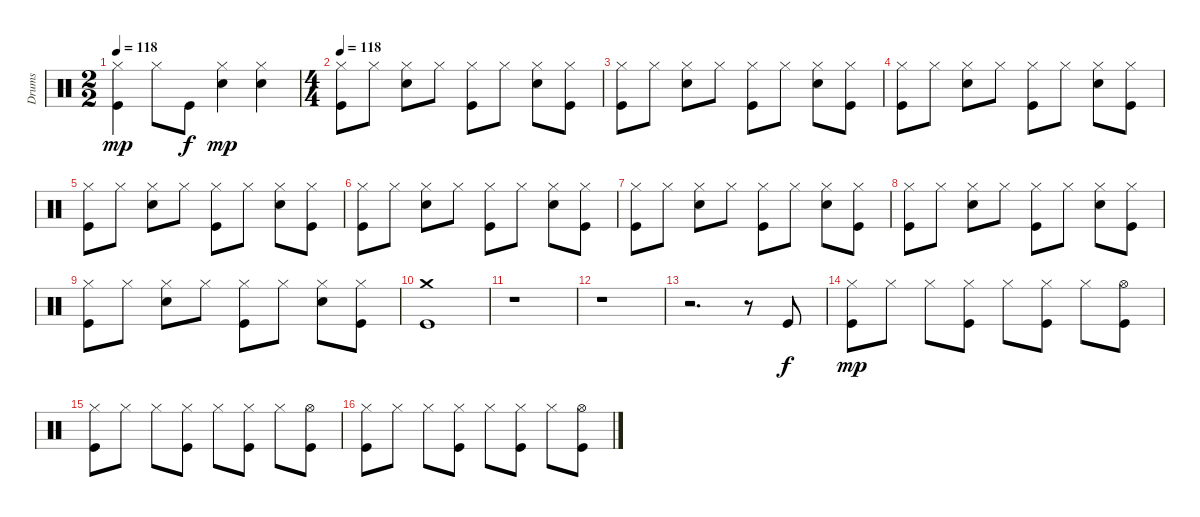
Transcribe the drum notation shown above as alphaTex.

\track ("Drums" "Drums") {instrument percussion}
\staff {score}
\articulation defaults
\ts (2 2)
\tempo 118
\clef neutral
\ks c
("Kick (hit)" "Hi-Hat (closed)").4{dy mp} "Hi-Hat (closed)".8 "Kick (hit)".8{dy f} ("Snare (hit) 2" "Hi-Hat (closed)").4{dy mp} ("Snare (hit) 2" "Hi-Hat (closed)").4 |
\ts (4 4)
\tempo 118
("Kick (hit)" "Hi-Hat (closed)").8 "Hi-Hat (closed)".8 ("Snare (hit) 2" "Hi-Hat (closed)").8 "Hi-Hat (closed)".8 ("Kick (hit)" "Hi-Hat (closed)").8 "Hi-Hat (closed)".8 ("Snare (hit) 2" "Hi-Hat (closed)").8 ("Kick (hit)" "Hi-Hat (closed)").8 |
("Kick (hit)" "Hi-Hat (closed)").8 "Hi-Hat (closed)".8 ("Snare (hit) 2" "Hi-Hat (closed)").8 "Hi-Hat (closed)".8 ("Kick (hit)" "Hi-Hat (closed)").8 "Hi-Hat (closed)".8 ("Snare (hit) 2" "Hi-Hat (closed)").8 ("Kick (hit)" "Hi-Hat (closed)").8 |
("Kick (hit)" "Hi-Hat (closed)").8 "Hi-Hat (closed)".8 ("Snare (hit) 2" "Hi-Hat (closed)").8 "Hi-Hat (closed)".8 ("Kick (hit)" "Hi-Hat (closed)").8 "Hi-Hat (closed)".8 ("Snare (hit) 2" "Hi-Hat (closed)").8 ("Kick (hit)" "Hi-Hat (closed)").8 |
("Kick (hit)" "Hi-Hat (closed)").8 "Hi-Hat (closed)".8 ("Snare (hit) 2" "Hi-Hat (closed)").8 "Hi-Hat (closed)".8 ("Kick (hit)" "Hi-Hat (closed)").8 "Hi-Hat (closed)".8 ("Snare (hit) 2" "Hi-Hat (closed)").8 ("Kick (hit)" "Hi-Hat (closed)").8 |
("Kick (hit)" "Hi-Hat (closed)").8 "Hi-Hat (closed)".8 ("Snare (hit) 2" "Hi-Hat (closed)").8 "Hi-Hat (closed)".8 ("Kick (hit)" "Hi-Hat (closed)").8 "Hi-Hat (closed)".8 ("Snare (hit) 2" "Hi-Hat (closed)").8 ("Kick (hit)" "Hi-Hat (closed)").8 |
("Kick (hit)" "Hi-Hat (closed)").8 "Hi-Hat (closed)".8 ("Snare (hit) 2" "Hi-Hat (closed)").8 "Hi-Hat (closed)".8 ("Kick (hit)" "Hi-Hat (closed)").8 "Hi-Hat (closed)".8 ("Snare (hit) 2" "Hi-Hat (closed)").8 ("Kick (hit)" "Hi-Hat (closed)").8 |
("Kick (hit)" "Hi-Hat (closed)").8 "Hi-Hat (closed)".8 ("Snare (hit) 2" "Hi-Hat (closed)").8 "Hi-Hat (closed)".8 ("Kick (hit)" "Hi-Hat (closed)").8 "Hi-Hat (closed)".8 ("Snare (hit) 2" "Hi-Hat (closed)").8 ("Kick (hit)" "Hi-Hat (closed)").8 |
("Kick (hit)" "Hi-Hat (closed)").8 "Hi-Hat (closed)".8 ("Snare (hit) 2" "Hi-Hat (closed)").8 "Hi-Hat (closed)".8 ("Kick (hit)" "Hi-Hat (closed)").8 "Hi-Hat (closed)".8 ("Snare (hit) 2" "Hi-Hat (closed)").8 ("Kick (hit)" "Hi-Hat (closed)").8 |
("Kick (hit)" "Crash medium (hit)").1 |
r.1 |
r.1 |
r.2{d} r.8 "Kick (hit)".8{dy f} |
("Kick (hit)" "Hi-Hat (closed)").8{dy mp} "Hi-Hat (closed)".8 "Hi-Hat (closed)".8 ("Kick (hit)" "Hi-Hat (closed)").8 "Hi-Hat (closed)".8 ("Kick (hit)" "Hi-Hat (closed)").8 "Hi-Hat (closed)".8 ("Kick (hit)" "Hi-Hat (open)").8 |
("Kick (hit)" "Hi-Hat (closed)").8 "Hi-Hat (closed)".8 "Hi-Hat (closed)".8 ("Kick (hit)" "Hi-Hat (closed)").8 "Hi-Hat (closed)".8 ("Kick (hit)" "Hi-Hat (closed)").8 "Hi-Hat (closed)".8 ("Kick (hit)" "Hi-Hat (open)").8 |
("Kick (hit)" "Hi-Hat (closed)").8 "Hi-Hat (closed)".8 "Hi-Hat (closed)".8 ("Kick (hit)" "Hi-Hat (closed)").8 "Hi-Hat (closed)".8 ("Kick (hit)" "Hi-Hat (closed)").8 "Hi-Hat (closed)".8 ("Kick (hit)" "Hi-Hat (open)").8
